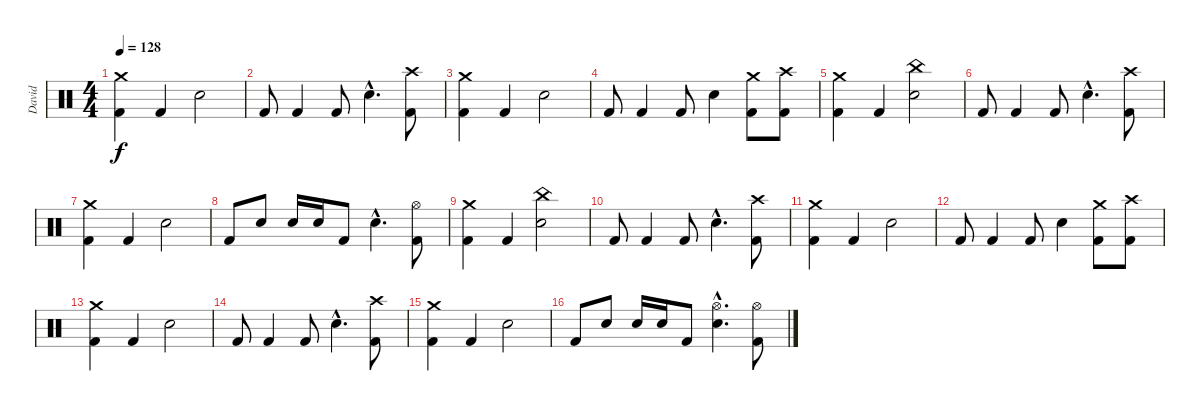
\track ("David" "David") {instrument percussion}
\staff {score}
\articulation defaults
\ts (4 4)
\tempo 128
\clef neutral
\ks c
("Crash medium (hit)" "Kick (hit) 2").4{dy f} "Kick (hit) 2".4 "Snare (hit) 2".2 |
"Kick (hit) 2".8 "Kick (hit) 2".4 "Kick (hit) 2".8 "Snare (hit) 2"{hac}.4{d} ("Crash high (hit)" "Kick (hit) 2").8 |
("Crash medium (hit)" "Kick (hit) 2").4 "Kick (hit) 2".4 "Snare (hit) 2".2 |
"Kick (hit) 2".8 "Kick (hit) 2".4 "Kick (hit) 2".8 "Snare (hit) 2".4 ("Crash medium (hit)" "Kick (hit) 2").8 ("Crash high (hit)" "Kick (hit) 2").8 |
("Crash medium (hit)" "Kick (hit) 2").4 "Kick (hit) 2".4 ("China (hit)" "Snare (hit) 2").2 |
"Kick (hit) 2".8 "Kick (hit) 2".4 "Kick (hit) 2".8 "Snare (hit) 2"{hac}.4{d} ("Crash high (hit)" "Kick (hit) 2").8 |
("Crash medium (hit)" "Kick (hit) 2").4 "Kick (hit) 2".4 "Snare (hit) 2".2 |
"Kick (hit) 2".8 "Snare (hit) 2".8 "Snare (hit) 2".16 "Snare (hit) 2".16 "Kick (hit) 2".8 "Snare (hit) 2"{hac}.4{d} ("Hi-Hat (open)" "Kick (hit) 2").8 |
("Crash medium (hit)" "Kick (hit) 2").4 "Kick (hit) 2".4 ("China (hit)" "Snare (hit) 2").2 |
"Kick (hit) 2".8 "Kick (hit) 2".4 "Kick (hit) 2".8 "Snare (hit) 2"{hac}.4{d} ("Crash high (hit)" "Kick (hit) 2").8 |
("Crash medium (hit)" "Kick (hit) 2").4 "Kick (hit) 2".4 "Snare (hit) 2".2 |
"Kick (hit) 2".8 "Kick (hit) 2".4 "Kick (hit) 2".8 "Snare (hit) 2".4 ("Crash medium (hit)" "Kick (hit) 2").8 ("Crash high (hit)" "Kick (hit) 2").8 |
("Crash medium (hit)" "Kick (hit) 2").4 "Kick (hit) 2".4 "Snare (hit) 2".2 |
"Kick (hit) 2".8 "Kick (hit) 2".4 "Kick (hit) 2".8 "Snare (hit) 2"{hac}.4{d} ("Crash high (hit)" "Kick (hit) 2").8 |
("Crash medium (hit)" "Kick (hit) 2").4 "Kick (hit) 2".4 "Snare (hit) 2".2 |
"Kick (hit) 2".8 "Snare (hit) 2".8 "Snare (hit) 2".16 "Snare (hit) 2".16 "Kick (hit) 2".8 ("Hi-Hat (open)"{hac} "Snare (hit) 2"{hac}).4{d} ("Hi-Hat (open)" "Kick (hit) 2").8
